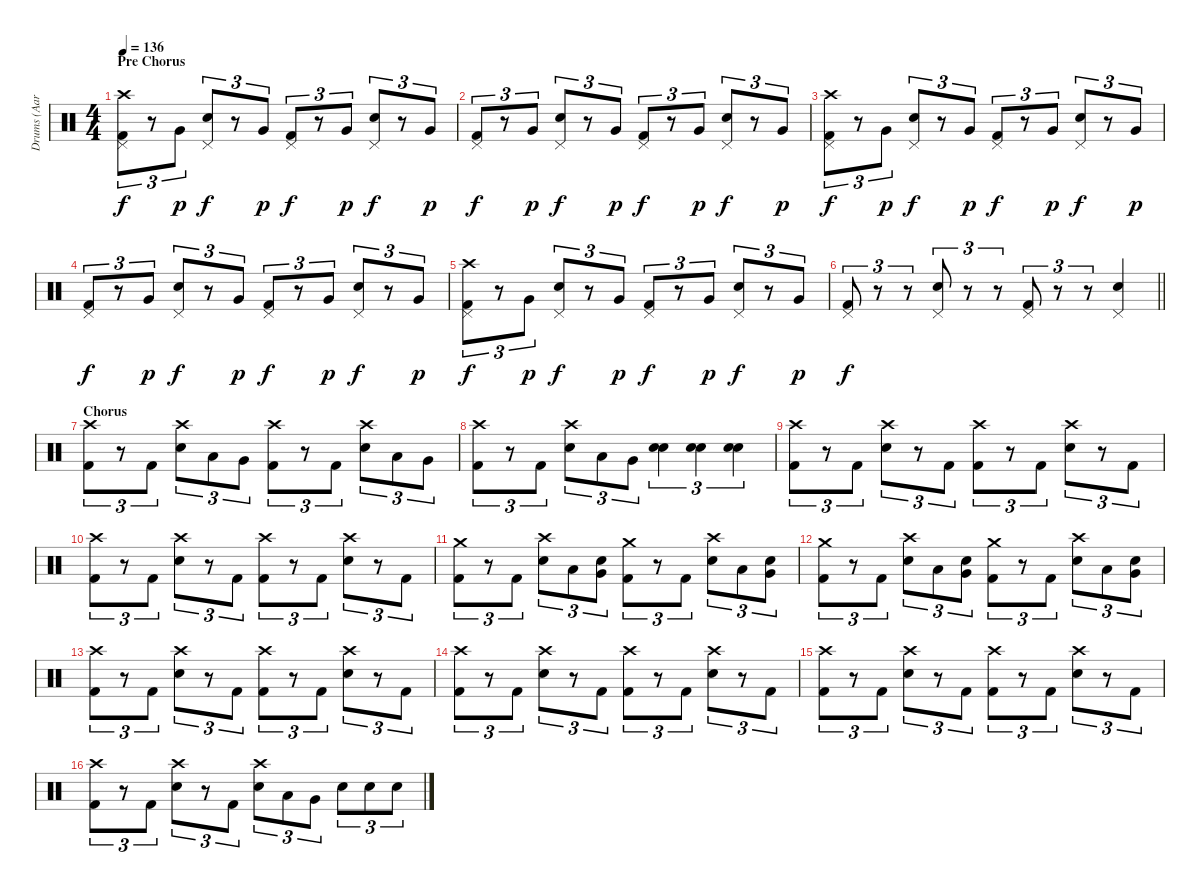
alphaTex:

\track ("Drums (Aaron Solowoniuk)" "Drums (Aar") {instrument percussion}
\staff {score}
\articulation defaults
\ts (4 4)
\section ("" "Pre Chorus")
\tempo 136
\clef neutral
\ks c
("Pedal Hi-Hat (hit)" "Kick (hit) 2" "Crash high (hit)").8{tu (3 2) dy f} r.8{tu (3 2)} "Very Low Tom (hit)".8{tu (3 2) dy p} ("Pedal Hi-Hat (hit)" "Electric Snare (hit)").8{tu (3 2) dy f} r.8{tu (3 2)} "Very Low Tom (hit)".8{tu (3 2) dy p} ("Pedal Hi-Hat (hit)" "Kick (hit) 2").8{tu (3 2) dy f} r.8{tu (3 2)} "Very Low Tom (hit)".8{tu (3 2) dy p} ("Pedal Hi-Hat (hit)" "Electric Snare (hit)").8{tu (3 2) dy f} r.8{tu (3 2)} "Very Low Tom (hit)".8{tu (3 2) dy p} |
("Pedal Hi-Hat (hit)" "Kick (hit) 2").8{tu (3 2) dy f} r.8{tu (3 2)} "Very Low Tom (hit)".8{tu (3 2) dy p} ("Pedal Hi-Hat (hit)" "Electric Snare (hit)").8{tu (3 2) dy f} r.8{tu (3 2)} "Very Low Tom (hit)".8{tu (3 2) dy p} ("Pedal Hi-Hat (hit)" "Kick (hit) 2").8{tu (3 2) dy f} r.8{tu (3 2)} "Very Low Tom (hit)".8{tu (3 2) dy p} ("Pedal Hi-Hat (hit)" "Electric Snare (hit)").8{tu (3 2) dy f} r.8{tu (3 2)} "Very Low Tom (hit)".8{tu (3 2) dy p} |
("Pedal Hi-Hat (hit)" "Kick (hit) 2" "Crash high (hit)").8{tu (3 2) dy f} r.8{tu (3 2)} "Very Low Tom (hit)".8{tu (3 2) dy p} ("Pedal Hi-Hat (hit)" "Electric Snare (hit)").8{tu (3 2) dy f} r.8{tu (3 2)} "Very Low Tom (hit)".8{tu (3 2) dy p} ("Pedal Hi-Hat (hit)" "Kick (hit) 2").8{tu (3 2) dy f} r.8{tu (3 2)} "Very Low Tom (hit)".8{tu (3 2) dy p} ("Pedal Hi-Hat (hit)" "Electric Snare (hit)").8{tu (3 2) dy f} r.8{tu (3 2)} "Very Low Tom (hit)".8{tu (3 2) dy p} |
("Pedal Hi-Hat (hit)" "Kick (hit) 2").8{tu (3 2) dy f} r.8{tu (3 2)} "Very Low Tom (hit)".8{tu (3 2) dy p} ("Pedal Hi-Hat (hit)" "Electric Snare (hit)").8{tu (3 2) dy f} r.8{tu (3 2)} "Very Low Tom (hit)".8{tu (3 2) dy p} ("Pedal Hi-Hat (hit)" "Kick (hit) 2").8{tu (3 2) dy f} r.8{tu (3 2)} "Very Low Tom (hit)".8{tu (3 2) dy p} ("Pedal Hi-Hat (hit)" "Electric Snare (hit)").8{tu (3 2) dy f} r.8{tu (3 2)} "Very Low Tom (hit)".8{tu (3 2) dy p} |
("Pedal Hi-Hat (hit)" "Kick (hit) 2" "Crash high (hit)").8{tu (3 2) dy f} r.8{tu (3 2)} "Very Low Tom (hit)".8{tu (3 2) dy p} ("Pedal Hi-Hat (hit)" "Electric Snare (hit)").8{tu (3 2) dy f} r.8{tu (3 2)} "Very Low Tom (hit)".8{tu (3 2) dy p} ("Pedal Hi-Hat (hit)" "Kick (hit) 2").8{tu (3 2) dy f} r.8{tu (3 2)} "Very Low Tom (hit)".8{tu (3 2) dy p} ("Pedal Hi-Hat (hit)" "Electric Snare (hit)").8{tu (3 2) dy f} r.8{tu (3 2)} "Very Low Tom (hit)".8{tu (3 2) dy p} |
\barLineRight lightlight
("Pedal Hi-Hat (hit)" "Kick (hit) 2").8{tu (3 2) dy f} r.8{tu (3 2)} r.8{tu (3 2)} ("Pedal Hi-Hat (hit)" "Electric Snare (hit)").8{tu (3 2)} r.8{tu (3 2)} r.8{tu (3 2)} ("Pedal Hi-Hat (hit)" "Kick (hit) 2").8{tu (3 2)} r.8{tu (3 2)} r.8{tu (3 2)} ("Pedal Hi-Hat (hit)" "Electric Snare (hit)").4 |
\section ("" "Chorus")
("Kick (hit) 2" "Crash high (hit)").8{tu (3 2)} r.8{tu (3 2)} "Kick (hit) 2".8{tu (3 2)} ("Electric Snare (hit)" "Crash high (hit)").8{tu (3 2)} "Low Tom (hit)".8{tu (3 2)} "Very Low Tom (hit)".8{tu (3 2)} ("Kick (hit) 2" "Crash high (hit)").8{tu (3 2)} r.8{tu (3 2)} "Kick (hit) 2".8{tu (3 2)} ("Electric Snare (hit)" "Crash high (hit)").8{tu (3 2)} "Low Tom (hit)".8{tu (3 2)} "Very Low Tom (hit)".8{tu (3 2)} |
("Kick (hit) 2" "Crash high (hit)").8{tu (3 2)} r.8{tu (3 2)} "Kick (hit) 2".8{tu (3 2)} ("Electric Snare (hit)" "Crash high (hit)").8{tu (3 2)} "Low Tom (hit)".8{tu (3 2)} "Very Low Tom (hit)".8{tu (3 2)} ("Electric Snare (hit)" "Electric Snare (hit)").4{tu (3 2)} ("Electric Snare (hit)" "Electric Snare (hit)").4{tu (3 2)} ("Electric Snare (hit)" "Electric Snare (hit)").4{tu (3 2)} |
("Kick (hit) 2" "Crash high (hit)").8{tu (3 2)} r.8{tu (3 2)} "Kick (hit) 2".8{tu (3 2)} ("Electric Snare (hit)" "Crash high (hit)").8{tu (3 2)} r.8{tu (3 2)} "Kick (hit) 2".8{tu (3 2)} ("Kick (hit) 2" "Crash high (hit)").8{tu (3 2)} r.8{tu (3 2)} "Kick (hit) 2".8{tu (3 2)} ("Electric Snare (hit)" "Crash high (hit)").8{tu (3 2)} r.8{tu (3 2)} "Kick (hit) 2".8{tu (3 2)} |
("Kick (hit) 2" "Crash high (hit)").8{tu (3 2)} r.8{tu (3 2)} "Kick (hit) 2".8{tu (3 2)} ("Electric Snare (hit)" "Crash high (hit)").8{tu (3 2)} r.8{tu (3 2)} "Kick (hit) 2".8{tu (3 2)} ("Kick (hit) 2" "Crash high (hit)").8{tu (3 2)} r.8{tu (3 2)} "Kick (hit) 2".8{tu (3 2)} ("Electric Snare (hit)" "Crash high (hit)").8{tu (3 2)} r.8{tu (3 2)} "Kick (hit) 2".8{tu (3 2)} |
("Crash medium (hit)" "Kick (hit) 2").8{tu (3 2)} r.8{tu (3 2)} "Kick (hit) 2".8{tu (3 2)} ("Crash high (hit)" "Electric Snare (hit)").8{tu (3 2)} "Low Tom (hit)".8{tu (3 2)} ("Electric Snare (hit)" "Very Low Tom (hit)").8{tu (3 2)} ("Crash medium (hit)" "Kick (hit) 2").8{tu (3 2)} r.8{tu (3 2)} "Kick (hit) 2".8{tu (3 2)} ("Crash high (hit)" "Electric Snare (hit)").8{tu (3 2)} "Low Tom (hit)".8{tu (3 2)} ("Electric Snare (hit)" "Very Low Tom (hit)").8{tu (3 2)} |
("Crash medium (hit)" "Kick (hit) 2").8{tu (3 2)} r.8{tu (3 2)} "Kick (hit) 2".8{tu (3 2)} ("Crash high (hit)" "Electric Snare (hit)").8{tu (3 2)} "Low Tom (hit)".8{tu (3 2)} ("Electric Snare (hit)" "Very Low Tom (hit)").8{tu (3 2)} ("Crash medium (hit)" "Kick (hit) 2").8{tu (3 2)} r.8{tu (3 2)} "Kick (hit) 2".8{tu (3 2)} ("Crash high (hit)" "Electric Snare (hit)").8{tu (3 2)} "Low Tom (hit)".8{tu (3 2)} ("Electric Snare (hit)" "Very Low Tom (hit)").8{tu (3 2)} |
("Crash high (hit)" "Kick (hit) 2").8{tu (3 2)} r.8{tu (3 2)} "Kick (hit) 2".8{tu (3 2)} ("Crash high (hit)" "Electric Snare (hit)").8{tu (3 2)} r.8{tu (3 2)} "Kick (hit) 2".8{tu (3 2)} ("Crash high (hit)" "Kick (hit) 2").8{tu (3 2)} r.8{tu (3 2)} "Kick (hit) 2".8{tu (3 2)} ("Crash high (hit)" "Electric Snare (hit)").8{tu (3 2)} r.8{tu (3 2)} "Kick (hit) 2".8{tu (3 2)} |
("Crash high (hit)" "Kick (hit) 2").8{tu (3 2)} r.8{tu (3 2)} "Kick (hit) 2".8{tu (3 2)} ("Crash high (hit)" "Electric Snare (hit)").8{tu (3 2)} r.8{tu (3 2)} "Kick (hit) 2".8{tu (3 2)} ("Crash high (hit)" "Kick (hit) 2").8{tu (3 2)} r.8{tu (3 2)} "Kick (hit) 2".8{tu (3 2)} ("Crash high (hit)" "Electric Snare (hit)").8{tu (3 2)} r.8{tu (3 2)} "Kick (hit) 2".8{tu (3 2)} |
("Crash high (hit)" "Kick (hit) 2").8{tu (3 2)} r.8{tu (3 2)} "Kick (hit) 2".8{tu (3 2)} ("Crash high (hit)" "Electric Snare (hit)").8{tu (3 2)} r.8{tu (3 2)} "Kick (hit) 2".8{tu (3 2)} ("Crash high (hit)" "Kick (hit) 2").8{tu (3 2)} r.8{tu (3 2)} "Kick (hit) 2".8{tu (3 2)} ("Crash high (hit)" "Electric Snare (hit)").8{tu (3 2)} r.8{tu (3 2)} "Kick (hit) 2".8{tu (3 2)} |
("Kick (hit) 2" "Crash high (hit)").8{tu (3 2)} r.8{tu (3 2)} "Kick (hit) 2".8{tu (3 2)} ("Electric Snare (hit)" "Crash high (hit)").8{tu (3 2)} r.8{tu (3 2)} "Kick (hit) 2".8{tu (3 2)} ("Electric Snare (hit)" "Crash high (hit)").8{tu (3 2)} "Low Tom (hit)".8{tu (3 2)} "Very Low Tom (hit)".8{tu (3 2)} "Electric Snare (hit)".8{tu (3 2)} "Electric Snare (hit)".8{tu (3 2)} "Electric Snare (hit)".8{tu (3 2)}
